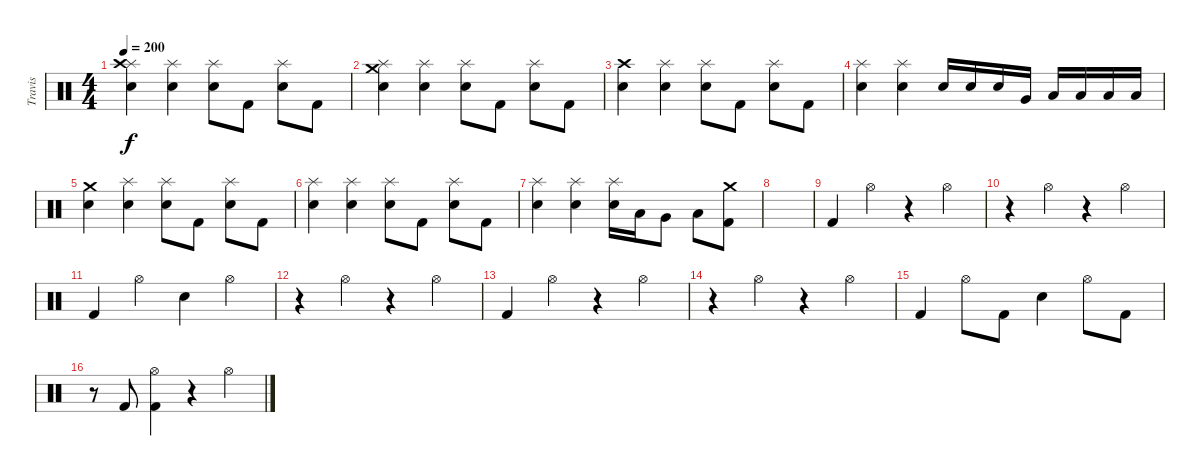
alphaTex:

\track ("Travis" "Travis") {instrument percussion}
\staff {score}
\articulation defaults
\ts (4 4)
\tempo 200
\clef neutral
\ks c
("Snare (hit) 2" "Splash (hit)" "Crash high (hit)").4{dy f} ("Snare (hit) 2" "Splash (hit)").4 ("Snare (hit) 2" "Splash (hit)").8 "Kick (hit) 2".8 ("Snare (hit) 2" "Splash (hit)").8 "Kick (hit) 2".8 |
("Snare (hit) 2" "Splash (hit)" "Crash medium (hit)").4 ("Snare (hit) 2" "Splash (hit)").4 ("Snare (hit) 2" "Splash (hit)").8 "Kick (hit) 2".8 ("Snare (hit) 2" "Splash (hit)").8 "Kick (hit) 2".8 |
("Snare (hit) 2" "Crash high (hit)").4 ("Snare (hit) 2" "Splash (hit)").4 ("Snare (hit) 2" "Splash (hit)").8 "Kick (hit) 2".8 ("Snare (hit) 2" "Splash (hit)").8 "Kick (hit) 2".8 |
("Snare (hit) 2" "Splash (hit)").4 ("Snare (hit) 2" "Splash (hit)").4 "Snare (hit) 2".16 "Snare (hit) 2".16 "Snare (hit) 2".16 "Very Low Tom (hit)".16 "Low Floor Tom (hit)".16 "Low Floor Tom (hit)".16 "Low Floor Tom (hit)".16 "Low Floor Tom (hit)".16 |
("Snare (hit) 2" "Crash medium (hit)").4 ("Snare (hit) 2" "Splash (hit)").4 ("Snare (hit) 2" "Splash (hit)").8 "Kick (hit) 2".8 ("Snare (hit) 2" "Splash (hit)").8 "Kick (hit) 2".8 |
("Snare (hit) 2" "Splash (hit)").4 ("Snare (hit) 2" "Splash (hit)").4 ("Snare (hit) 2" "Splash (hit)").8 "Kick (hit) 2".8 ("Snare (hit) 2" "Splash (hit)").8 "Kick (hit) 2".8 |
("Snare (hit) 2" "Splash (hit)").4 ("Snare (hit) 2" "Splash (hit)").4 ("Snare (hit) 2" "Splash (hit)").16 "Low Tom (hit)".16 "Very Low Tom (hit)".8 "Low Floor Tom (hit)".8 ("Kick (hit) 2" "Crash medium (hit)").8 |
|
"Kick (hit) 2".4 "Hi-Hat (open)".4 r.4 "Hi-Hat (open)".4 |
r.4 "Hi-Hat (open)".4 r.4 "Hi-Hat (open)".4 |
"Kick (hit) 2".4 "Hi-Hat (open)".4 "Snare (hit) 2".4 "Hi-Hat (open)".4 |
r.4 "Hi-Hat (open)".4 r.4 "Hi-Hat (open)".4 |
"Kick (hit) 2".4 "Hi-Hat (open)".4 r.4 "Hi-Hat (open)".4 |
r.4 "Hi-Hat (open)".4 r.4 "Hi-Hat (open)".4 |
"Kick (hit) 2".4 "Hi-Hat (open)".8 "Kick (hit) 2".8 "Snare (hit) 2".4 "Hi-Hat (open)".8 "Kick (hit) 2".8 |
r.8 "Kick (hit) 2".8 ("Kick (hit) 2" "Hi-Hat (open)").4 r.4 "Hi-Hat (open)".4
